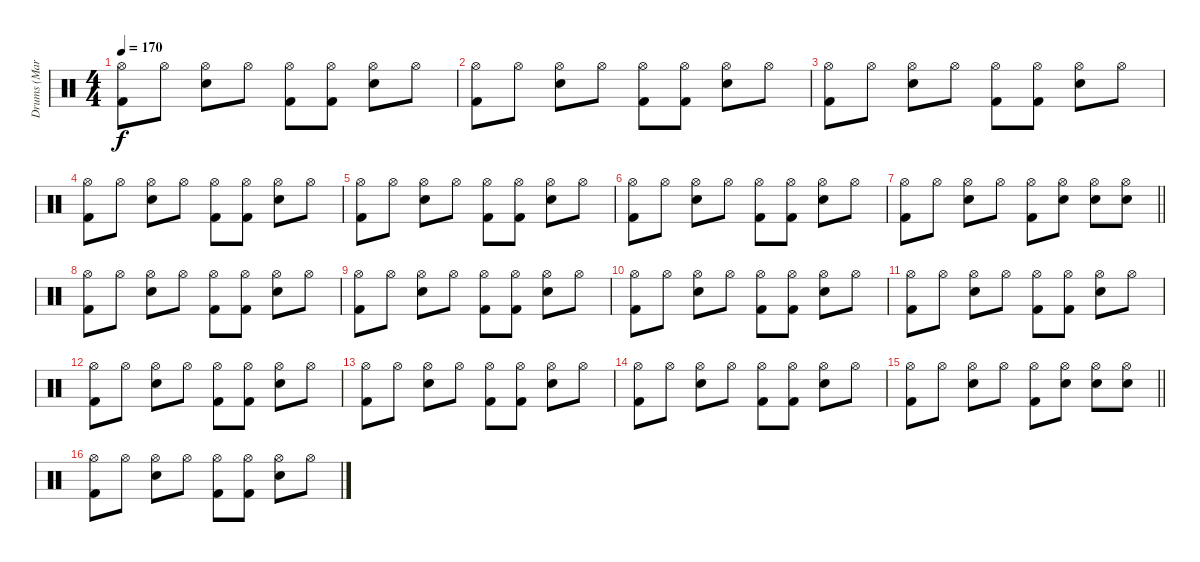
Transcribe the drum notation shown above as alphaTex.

\track ("Drums (Marky)" "Drums (Mar") {instrument percussion}
\staff {score}
\articulation defaults
\ts (4 4)
\tempo 170
\clef neutral
\ks c
("Hi-Hat (open)" "Kick (hit) 2").8{dy f} "Hi-Hat (open)".8 ("Hi-Hat (open)" "Snare (hit) 2").8 "Hi-Hat (open)".8 ("Hi-Hat (open)" "Kick (hit) 2").8 ("Hi-Hat (open)" "Kick (hit) 2").8 ("Hi-Hat (open)" "Snare (hit) 2").8 "Hi-Hat (open)".8 |
("Hi-Hat (open)" "Kick (hit) 2").8 "Hi-Hat (open)".8 ("Hi-Hat (open)" "Snare (hit) 2").8 "Hi-Hat (open)".8 ("Hi-Hat (open)" "Kick (hit) 2").8 ("Hi-Hat (open)" "Kick (hit) 2").8 ("Hi-Hat (open)" "Snare (hit) 2").8 "Hi-Hat (open)".8 |
("Hi-Hat (open)" "Kick (hit) 2").8 "Hi-Hat (open)".8 ("Hi-Hat (open)" "Snare (hit) 2").8 "Hi-Hat (open)".8 ("Hi-Hat (open)" "Kick (hit) 2").8 ("Hi-Hat (open)" "Kick (hit) 2").8 ("Hi-Hat (open)" "Snare (hit) 2").8 "Hi-Hat (open)".8 |
("Hi-Hat (open)" "Kick (hit) 2").8 "Hi-Hat (open)".8 ("Hi-Hat (open)" "Snare (hit) 2").8 "Hi-Hat (open)".8 ("Hi-Hat (open)" "Kick (hit) 2").8 ("Hi-Hat (open)" "Kick (hit) 2").8 ("Hi-Hat (open)" "Snare (hit) 2").8 "Hi-Hat (open)".8 |
("Hi-Hat (open)" "Kick (hit) 2").8 "Hi-Hat (open)".8 ("Hi-Hat (open)" "Snare (hit) 2").8 "Hi-Hat (open)".8 ("Hi-Hat (open)" "Kick (hit) 2").8 ("Hi-Hat (open)" "Kick (hit) 2").8 ("Hi-Hat (open)" "Snare (hit) 2").8 "Hi-Hat (open)".8 |
("Hi-Hat (open)" "Kick (hit) 2").8 "Hi-Hat (open)".8 ("Hi-Hat (open)" "Snare (hit) 2").8 "Hi-Hat (open)".8 ("Hi-Hat (open)" "Kick (hit) 2").8 ("Hi-Hat (open)" "Kick (hit) 2").8 ("Hi-Hat (open)" "Snare (hit) 2").8 "Hi-Hat (open)".8 |
\barLineRight lightlight
("Hi-Hat (open)" "Kick (hit) 2").8 "Hi-Hat (open)".8 ("Hi-Hat (open)" "Snare (hit) 2").8 "Hi-Hat (open)".8 ("Hi-Hat (open)" "Kick (hit) 2").8 ("Hi-Hat (open)" "Snare (hit) 2").8 ("Hi-Hat (open)" "Snare (hit) 2").8 ("Hi-Hat (open)" "Snare (hit) 2").8 |
("Hi-Hat (open)" "Kick (hit) 2").8 "Hi-Hat (open)".8 ("Hi-Hat (open)" "Snare (hit) 2").8 "Hi-Hat (open)".8 ("Hi-Hat (open)" "Kick (hit) 2").8 ("Hi-Hat (open)" "Kick (hit) 2").8 ("Hi-Hat (open)" "Snare (hit) 2").8 "Hi-Hat (open)".8 |
("Hi-Hat (open)" "Kick (hit) 2").8 "Hi-Hat (open)".8 ("Hi-Hat (open)" "Snare (hit) 2").8 "Hi-Hat (open)".8 ("Hi-Hat (open)" "Kick (hit) 2").8 ("Hi-Hat (open)" "Kick (hit) 2").8 ("Hi-Hat (open)" "Snare (hit) 2").8 "Hi-Hat (open)".8 |
("Hi-Hat (open)" "Kick (hit) 2").8 "Hi-Hat (open)".8 ("Hi-Hat (open)" "Snare (hit) 2").8 "Hi-Hat (open)".8 ("Hi-Hat (open)" "Kick (hit) 2").8 ("Hi-Hat (open)" "Kick (hit) 2").8 ("Hi-Hat (open)" "Snare (hit) 2").8 "Hi-Hat (open)".8 |
("Hi-Hat (open)" "Kick (hit) 2").8 "Hi-Hat (open)".8 ("Hi-Hat (open)" "Snare (hit) 2").8 "Hi-Hat (open)".8 ("Hi-Hat (open)" "Kick (hit) 2").8 ("Hi-Hat (open)" "Kick (hit) 2").8 ("Hi-Hat (open)" "Snare (hit) 2").8 "Hi-Hat (open)".8 |
("Hi-Hat (open)" "Kick (hit) 2").8 "Hi-Hat (open)".8 ("Hi-Hat (open)" "Snare (hit) 2").8 "Hi-Hat (open)".8 ("Hi-Hat (open)" "Kick (hit) 2").8 ("Hi-Hat (open)" "Kick (hit) 2").8 ("Hi-Hat (open)" "Snare (hit) 2").8 "Hi-Hat (open)".8 |
("Hi-Hat (open)" "Kick (hit) 2").8 "Hi-Hat (open)".8 ("Hi-Hat (open)" "Snare (hit) 2").8 "Hi-Hat (open)".8 ("Hi-Hat (open)" "Kick (hit) 2").8 ("Hi-Hat (open)" "Kick (hit) 2").8 ("Hi-Hat (open)" "Snare (hit) 2").8 "Hi-Hat (open)".8 |
("Hi-Hat (open)" "Kick (hit) 2").8 "Hi-Hat (open)".8 ("Hi-Hat (open)" "Snare (hit) 2").8 "Hi-Hat (open)".8 ("Hi-Hat (open)" "Kick (hit) 2").8 ("Hi-Hat (open)" "Kick (hit) 2").8 ("Hi-Hat (open)" "Snare (hit) 2").8 "Hi-Hat (open)".8 |
\barLineRight lightlight
("Hi-Hat (open)" "Kick (hit) 2").8 "Hi-Hat (open)".8 ("Hi-Hat (open)" "Snare (hit) 2").8 "Hi-Hat (open)".8 ("Hi-Hat (open)" "Kick (hit) 2").8 ("Hi-Hat (open)" "Snare (hit) 2").8 ("Hi-Hat (open)" "Snare (hit) 2").8 ("Hi-Hat (open)" "Snare (hit) 2").8 |
("Hi-Hat (open)" "Kick (hit) 2").8 "Hi-Hat (open)".8 ("Hi-Hat (open)" "Snare (hit) 2").8 "Hi-Hat (open)".8 ("Hi-Hat (open)" "Kick (hit) 2").8 ("Hi-Hat (open)" "Kick (hit) 2").8 ("Hi-Hat (open)" "Snare (hit) 2").8 "Hi-Hat (open)".8
